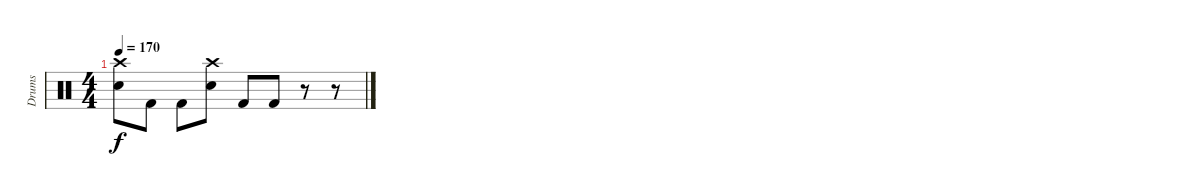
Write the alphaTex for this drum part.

\track ("Drums" "Drums") {instrument percussion}
\staff {score}
\articulation defaults
\ts (4 4)
\tempo 170
\clef neutral
\ks c
("Crash high (hit)" "Electric Snare (hit)").8{dy f} "Kick (hit) 2".8 "Kick (hit) 2".8 ("Crash high (hit)" "Electric Snare (hit)").8 "Kick (hit) 2".8 "Kick (hit) 2".8 r.8 r.8
